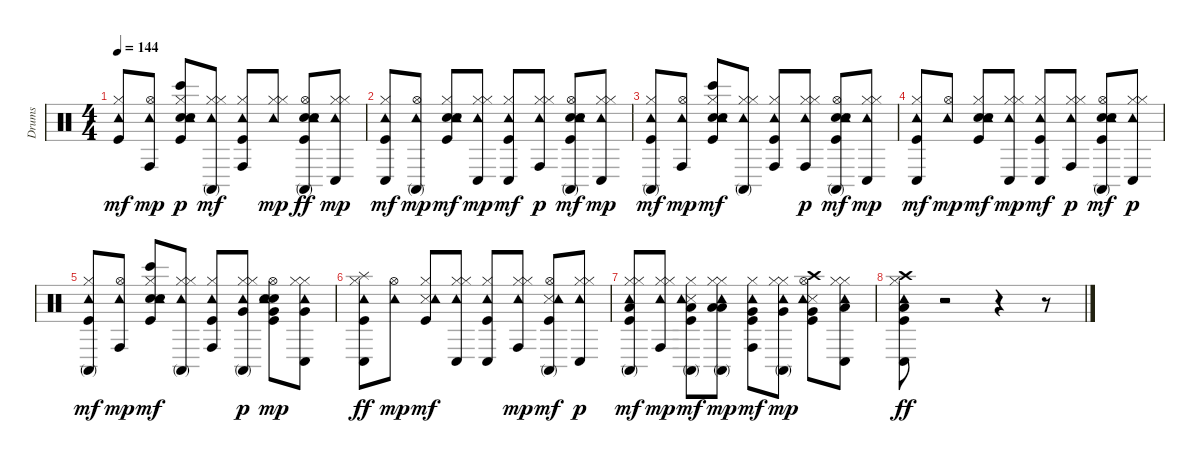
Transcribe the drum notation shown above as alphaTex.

\track ("Drums" "Drums") {instrument percussion}
\staff {score}
\articulation defaults
\ts (4 4)
\tempo 144
\clef neutral
\ks c
("Kick (hit)" "Hi-Hat (closed)" "Tambourine (hit)").8{dy mf} ("Hi-Hat (open)" "Tambourine (hit)" "Conga high (hit)").8{dy mp} ("Kick (hit)" "Snare (hit) 2" "Hand Clap (hit)" "Hi-Hat (closed)" "Tambourine (hit)" "Bongo High (hit)").8{dy p} ("Hi-Hat (closed)" "Tambourine (hit)" "Conga high (mute)" "Hi-Hat (closed)").8{dy mf} ("Kick (hit)" "Hi-Hat (closed)" "Tambourine (hit)" "Conga high (hit)").8 ("Hi-Hat (closed)" "Tambourine (hit)" "Hi-Hat (closed)").8{dy mp} ("Kick (hit)" "Snare (hit) 2" "Hand Clap (hit)" "Hi-Hat (open)" "Tambourine (hit)" "Conga high (mute)").8{dy ff} ("Hi-Hat (closed)" "Tambourine (hit)" "Conga low (hit)" "Hi-Hat (closed)").8{dy mp} |
("Kick (hit)" "Hi-Hat (closed)" "Tambourine (hit)" "Conga low (hit)").8{dy mf} ("Hi-Hat (open)" "Tambourine (hit)" "Conga high (mute)").8{dy mp} ("Kick (hit)" "Snare (hit) 2" "Hand Clap (hit)" "Hi-Hat (closed)" "Tambourine (hit)").8{dy mf} ("Hi-Hat (closed)" "Tambourine (hit)" "Conga low (hit)" "Hi-Hat (closed)").8{dy mp} ("Kick (hit)" "Hi-Hat (closed)" "Tambourine (hit)" "Conga low (hit)").8{dy mf} ("Hi-Hat (closed)" "Tambourine (hit)" "Conga high (hit)" "Hi-Hat (closed)").8{dy p} ("Kick (hit)" "Snare (hit) 2" "Hand Clap (hit)" "Hi-Hat (open)" "Tambourine (hit)" "Conga high (mute)").8{dy mf} ("Hi-Hat (closed)" "Tambourine (hit)" "Conga low (hit)" "Hi-Hat (closed)").8{dy mp} |
("Kick (hit)" "Hi-Hat (closed)" "Tambourine (hit)" "Conga high (mute)").8{dy mf} ("Hi-Hat (open)" "Tambourine (hit)" "Conga high (hit)").8{dy mp} ("Kick (hit)" "Snare (hit) 2" "Hand Clap (hit)" "Hi-Hat (closed)" "Tambourine (hit)" "Bongo High (hit)").8{dy mf} ("Hi-Hat (closed)" "Tambourine (hit)" "Conga high (mute)" "Hi-Hat (closed)").8 ("Kick (hit)" "Hi-Hat (closed)" "Tambourine (hit)" "Conga high (hit)").8 ("Hi-Hat (closed)" "Tambourine (hit)" "Conga high (hit)" "Hi-Hat (closed)").8{dy p} ("Kick (hit)" "Snare (hit) 2" "Hand Clap (hit)" "Hi-Hat (open)" "Tambourine (hit)" "Conga high (mute)").8{dy mf} ("Hi-Hat (closed)" "Tambourine (hit)" "Conga low (hit)" "Hi-Hat (closed)").8{dy mp} |
("Kick (hit)" "Hi-Hat (closed)" "Tambourine (hit)" "Conga low (hit)").8{dy mf} ("Hi-Hat (open)" "Tambourine (hit)").8{dy mp} ("Kick (hit)" "Snare (hit) 2" "Hand Clap (hit)" "Hi-Hat (closed)" "Tambourine (hit)").8{dy mf} ("Hi-Hat (closed)" "Tambourine (hit)" "Conga low (hit)" "Hi-Hat (closed)").8{dy mp} ("Kick (hit)" "Hi-Hat (closed)" "Tambourine (hit)" "Conga low (hit)").8{dy mf} ("Hi-Hat (closed)" "Tambourine (hit)" "Conga high (hit)" "Hi-Hat (closed)").8{dy p} ("Kick (hit)" "Snare (hit) 2" "Hand Clap (hit)" "Hi-Hat (open)" "Tambourine (hit)" "Conga high (mute)").8{dy mf} ("Hi-Hat (closed)" "Tambourine (hit)" "Conga low (hit)" "Hi-Hat (closed)").8{dy p} |
("Kick (hit)" "Hi-Hat (closed)" "Tambourine (hit)" "Conga high (mute)").8{dy mf} ("Hi-Hat (open)" "Tambourine (hit)" "Conga high (hit)").8{dy mp} ("Kick (hit)" "Snare (hit) 2" "Hand Clap (hit)" "Hi-Hat (closed)" "Tambourine (hit)" "Bongo High (hit)").8{dy mf} ("Hi-Hat (closed)" "Tambourine (hit)" "Conga high (mute)" "Hi-Hat (closed)").8 ("Kick (hit)" "Hi-Hat (closed)" "Tambourine (hit)" "Conga high (hit)").8 ("Hi-Hat (closed)" "Very Low Tom (hit)" "Tambourine (hit)" "Conga high (mute)" "Hi-Hat (closed)").8{dy p} ("Kick (hit)" "Snare (hit) 2" "Hand Clap (hit)" "Very Low Tom (hit)" "Hi-Hat (open)" "Tambourine (hit)").8{dy mp} ("Hi-Hat (closed)" "Very Low Tom (hit)" "Tambourine (hit)" "Conga low (hit)" "Hi-Hat (closed)").8 |
("Kick (hit)" "Hi-Hat (closed)" "Tambourine (hit)" "Splash (hit)" "Conga low (hit)").8{dy ff} ("Hi-Hat (open)" "Tambourine (hit)").8{dy mp} ("Kick (hit)" "Snare (side stick) 3" "Hi-Hat (closed)" "Tambourine (hit)").8{dy mf} ("Hi-Hat (closed)" "Tambourine (hit)" "Conga low (hit)" "Hi-Hat (closed)").8 ("Kick (hit)" "Hi-Hat (closed)" "Tambourine (hit)" "Conga low (hit)").8 ("Hi-Hat (closed)" "Tambourine (hit)" "Conga high (hit)" "Hi-Hat (closed)").8{dy mp} ("Kick (hit)" "Snare (side stick) 3" "Hi-Hat (open)" "Tambourine (hit)" "Conga high (mute)").8{dy mf} ("Hi-Hat (closed)" "Tambourine (hit)" "Conga low (hit)" "Hi-Hat (closed)").8{dy p} |
("Kick (hit)" "Low Floor Tom (hit)" "Hi-Hat (closed)" "Tambourine (hit)" "Hi-Hat (closed)" "Conga high (mute)").8{dy mf} ("Hi-Hat (closed)" "Tambourine (hit)" "Conga high (hit)" "Hi-Hat (closed)").8{dy mp} ("Kick (hit)" "Snare (side stick) 3" "Hi-Hat (closed)" "Tambourine (hit)" "Conga high (mute)" "Low Floor Tom (hit)").8{dy mf} ("Low Floor Tom (hit)" "Hi-Hat (closed)" "Tambourine (hit)" "Conga high (mute)" "Low Floor Tom (hit)" "Hi-Hat (closed)").8{dy mp} ("Kick (hit)" "Hi-Hat (closed)" "Tambourine (hit)" "Conga high (hit)" "Very Low Tom (hit)").8{dy mf} ("Hi-Hat (closed)" "Very Low Tom (hit)" "Tambourine (hit)" "Conga high (mute)" "Hi-Hat (closed)").8{dy mp} ("Kick (hit)" "Snare (side stick) 3" "Very Low Tom (hit)" "Hi-Hat (open)" "Crash high (hit)" "Tambourine (hit)").8 ("Low Floor Tom (hit)" "Hi-Hat (closed)" "Tambourine (hit)" "Conga low (hit)" "Hi-Hat (closed)").8 |
("Kick (hit)" "Low Floor Tom (hit)" "Hi-Hat (closed)" "Crash high (hit)" "Tambourine (hit)" "Conga low (hit)").8{dy ff} r.2 r.4 r.8
